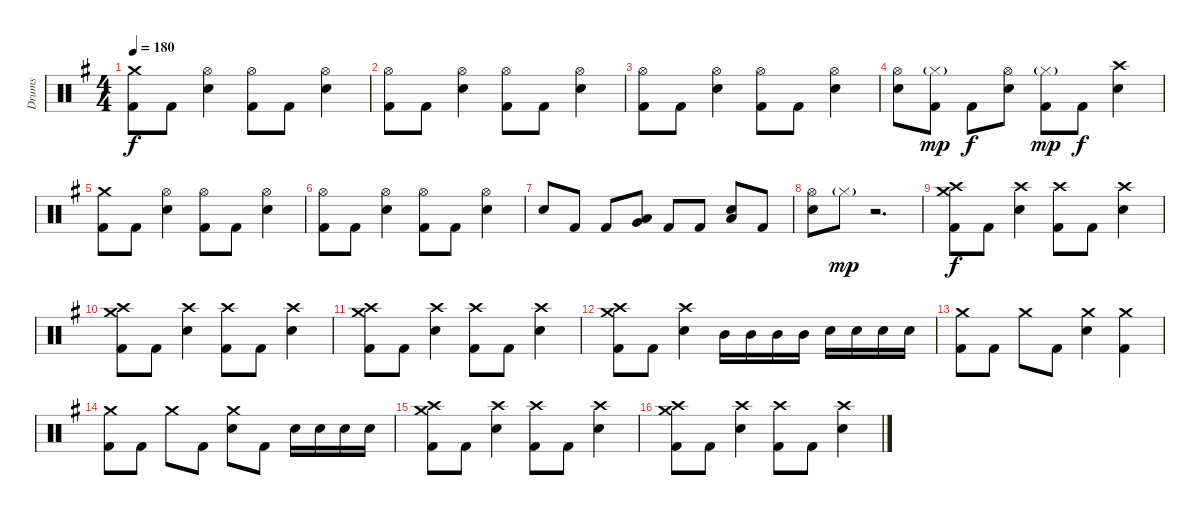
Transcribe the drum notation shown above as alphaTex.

\track ("Drums" "Drums") {instrument percussion}
\staff {score}
\articulation defaults
\ts (4 4)
\tempo 180
\clef neutral
\ks g
("Crash medium (hit)" "Kick (hit) 2").8{dy f} "Kick (hit) 2".8 ("Hi-Hat (open)" "Electric Snare (hit)").4 ("Hi-Hat (open)" "Kick (hit) 2").8 "Kick (hit) 2".8 ("Hi-Hat (open)" "Electric Snare (hit)").4 |
("Hi-Hat (open)" "Kick (hit) 2").8 "Kick (hit) 2".8 ("Hi-Hat (open)" "Electric Snare (hit)").4 ("Hi-Hat (open)" "Kick (hit) 2").8 "Kick (hit) 2".8 ("Hi-Hat (open)" "Electric Snare (hit)").4 |
("Hi-Hat (open)" "Kick (hit) 2").8 "Kick (hit) 2".8 ("Hi-Hat (open)" "Electric Snare (hit)").4 ("Hi-Hat (open)" "Kick (hit) 2").8 "Kick (hit) 2".8 ("Hi-Hat (open)" "Electric Snare (hit)").4 |
("Hi-Hat (open)" "Electric Snare (hit)").8 ("Hi-Hat (closed)"{g} "Kick (hit) 2").8{dy mp} "Kick (hit) 2".8{dy f} ("Hi-Hat (open)" "Electric Snare (hit)").8 ("Hi-Hat (closed)"{g} "Kick (hit) 2").8{dy mp} "Kick (hit) 2".8{dy f} ("Crash high (hit)" "Electric Snare (hit)").4 |
("Crash medium (hit)" "Kick (hit) 2").8 "Kick (hit) 2".8 ("Hi-Hat (open)" "Electric Snare (hit)").4 ("Hi-Hat (open)" "Kick (hit) 2").8 "Kick (hit) 2".8 ("Hi-Hat (open)" "Electric Snare (hit)").4 |
("Hi-Hat (open)" "Kick (hit) 2").8 "Kick (hit) 2".8 ("Hi-Hat (open)" "Electric Snare (hit)").4 ("Hi-Hat (open)" "Kick (hit) 2").8 "Kick (hit) 2".8 ("Hi-Hat (open)" "Electric Snare (hit)").4 |
"Electric Snare (hit)".8 "Kick (hit) 2".8 "Kick (hit) 2".8 ("Low Tom (hit)" "Very Low Tom (hit)").8 "Kick (hit) 2".8 "Kick (hit) 2".8 ("Electric Snare (hit)" "Low Tom (hit)").8 "Kick (hit) 2".8 |
("Hi-Hat (open)" "Electric Snare (hit)").8 "Hi-Hat (closed)"{g}.8{dy mp} r.2{d} |
("Crash medium (hit)" "Crash high (hit)" "Kick (hit) 2").8{dy f} "Kick (hit) 2".8 ("Crash high (hit)" "Electric Snare (hit)").4 ("Crash high (hit)" "Kick (hit) 2").8 "Kick (hit) 2".8 ("Crash high (hit)" "Electric Snare (hit)").4 |
("Crash medium (hit)" "Crash high (hit)" "Kick (hit) 2").8 "Kick (hit) 2".8 ("Crash high (hit)" "Electric Snare (hit)").4 ("Crash high (hit)" "Kick (hit) 2").8 "Kick (hit) 2".8 ("Crash high (hit)" "Electric Snare (hit)").4 |
("Crash medium (hit)" "Crash high (hit)" "Kick (hit) 2").8 "Kick (hit) 2".8 ("Crash high (hit)" "Electric Snare (hit)").4 ("Crash high (hit)" "Kick (hit) 2").8 "Kick (hit) 2".8 ("Crash high (hit)" "Electric Snare (hit)").4 |
("Crash medium (hit)" "Crash high (hit)" "Kick (hit) 2").8 "Kick (hit) 2".8 ("Crash high (hit)" "Electric Snare (hit)").4 "Mid Tom (hit)".16 "Mid Tom (hit)".16 "Mid Tom (hit)".16 "Mid Tom (hit)".16 "Electric Snare (hit)".16 "Electric Snare (hit)".16 "Electric Snare (hit)".16 "Electric Snare (hit)".16 |
("Crash medium (hit)" "Kick (hit) 2").8 "Kick (hit) 2".8 "Crash medium (hit)".8 "Kick (hit) 2".8 ("Crash medium (hit)" "Electric Snare (hit)").4 ("Crash medium (hit)" "Kick (hit) 2").4 |
("Crash medium (hit)" "Kick (hit) 2").8 "Kick (hit) 2".8 "Crash medium (hit)".8 "Kick (hit) 2".8 ("Crash medium (hit)" "Electric Snare (hit)").8 "Kick (hit) 2".8 "Electric Snare (hit)".16 "Electric Snare (hit)".16 "Electric Snare (hit)".16 "Electric Snare (hit)".16 |
("Crash medium (hit)" "Crash high (hit)" "Kick (hit) 2").8 "Kick (hit) 2".8 ("Crash high (hit)" "Electric Snare (hit)").4 ("Crash high (hit)" "Kick (hit) 2").8 "Kick (hit) 2".8 ("Crash high (hit)" "Electric Snare (hit)").4 |
("Crash medium (hit)" "Crash high (hit)" "Kick (hit) 2").8 "Kick (hit) 2".8 ("Crash high (hit)" "Electric Snare (hit)").4 ("Crash high (hit)" "Kick (hit) 2").8 "Kick (hit) 2".8 ("Crash high (hit)" "Electric Snare (hit)").4
